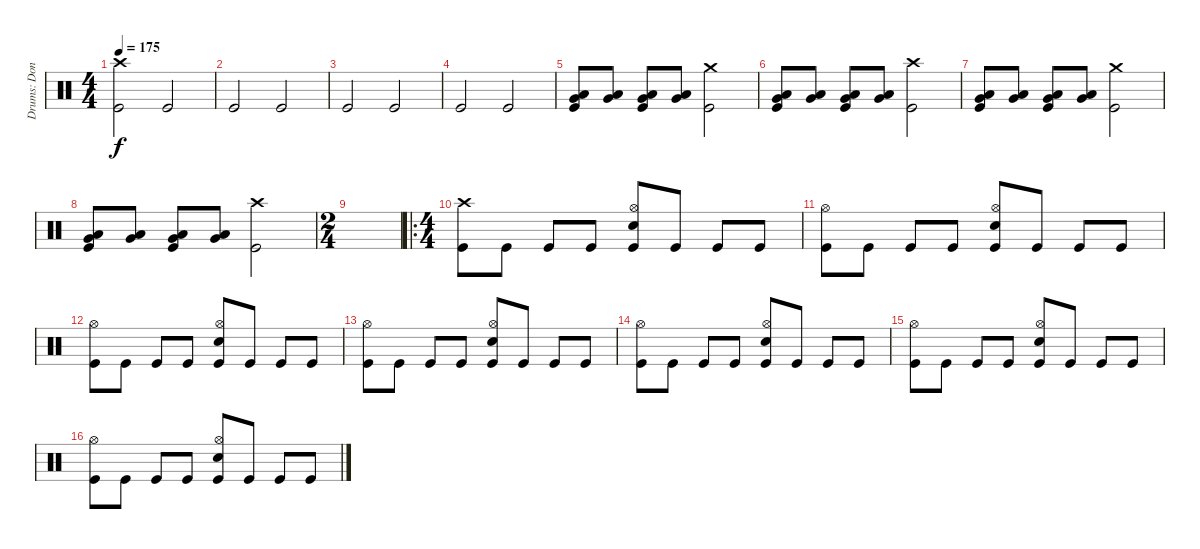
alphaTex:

\track ("Drums: Donald Tardy" "Drums: Don") {instrument percussion}
\staff {score}
\articulation defaults
\ts (4 4)
\tempo 175
\clef neutral
\ks c
("Crash high (hit)" "Kick (hit)").2{dy f} "Kick (hit)".2 |
"Kick (hit)".2 "Kick (hit)".2 |
"Kick (hit)".2 "Kick (hit)".2 |
"Kick (hit)".2 "Kick (hit)".2 |
("Very Low Tom (hit)" "Low Floor Tom (hit)" "Kick (hit)").8 ("Very Low Tom (hit)" "Low Floor Tom (hit)").8 ("Very Low Tom (hit)" "Low Floor Tom (hit)" "Kick (hit)").8 ("Very Low Tom (hit)" "Low Floor Tom (hit)").8 ("Crash medium (hit)" "Kick (hit)").2 |
("Very Low Tom (hit)" "Low Floor Tom (hit)" "Kick (hit)").8 ("Very Low Tom (hit)" "Low Floor Tom (hit)").8 ("Very Low Tom (hit)" "Low Floor Tom (hit)" "Kick (hit)").8 ("Very Low Tom (hit)" "Low Floor Tom (hit)").8 ("Crash high (hit)" "Kick (hit)").2 |
("Very Low Tom (hit)" "Low Floor Tom (hit)" "Kick (hit)").8 ("Very Low Tom (hit)" "Low Floor Tom (hit)").8 ("Very Low Tom (hit)" "Low Floor Tom (hit)" "Kick (hit)").8 ("Very Low Tom (hit)" "Low Floor Tom (hit)").8 ("Crash medium (hit)" "Kick (hit)").2 |
("Very Low Tom (hit)" "Low Floor Tom (hit)" "Kick (hit)").8 ("Very Low Tom (hit)" "Low Floor Tom (hit)").8 ("Very Low Tom (hit)" "Low Floor Tom (hit)" "Kick (hit)").8 ("Very Low Tom (hit)" "Low Floor Tom (hit)").8 ("Crash high (hit)" "Kick (hit)").2 |
\ts (2 4)
|
\ro
\ts (4 4)
("Crash high (hit)" "Kick (hit)").8 "Kick (hit)".8 "Kick (hit)".8 "Kick (hit)".8 ("Hi-Hat (open)" "Snare (hit) 2" "Kick (hit)").8 "Kick (hit)".8 "Kick (hit)".8 "Kick (hit)".8 |
("Hi-Hat (open)" "Kick (hit)").8 "Kick (hit)".8 "Kick (hit)".8 "Kick (hit)".8 ("Hi-Hat (open)" "Snare (hit) 2" "Kick (hit)").8 "Kick (hit)".8 "Kick (hit)".8 "Kick (hit)".8 |
("Hi-Hat (open)" "Kick (hit)").8 "Kick (hit)".8 "Kick (hit)".8 "Kick (hit)".8 ("Hi-Hat (open)" "Snare (hit) 2" "Kick (hit)").8 "Kick (hit)".8 "Kick (hit)".8 "Kick (hit)".8 |
("Hi-Hat (open)" "Kick (hit)").8 "Kick (hit)".8 "Kick (hit)".8 "Kick (hit)".8 ("Hi-Hat (open)" "Snare (hit) 2" "Kick (hit)").8 "Kick (hit)".8 "Kick (hit)".8 "Kick (hit)".8 |
("Hi-Hat (open)" "Kick (hit)").8 "Kick (hit)".8 "Kick (hit)".8 "Kick (hit)".8 ("Hi-Hat (open)" "Snare (hit) 2" "Kick (hit)").8 "Kick (hit)".8 "Kick (hit)".8 "Kick (hit)".8 |
("Hi-Hat (open)" "Kick (hit)").8 "Kick (hit)".8 "Kick (hit)".8 "Kick (hit)".8 ("Hi-Hat (open)" "Snare (hit) 2" "Kick (hit)").8 "Kick (hit)".8 "Kick (hit)".8 "Kick (hit)".8 |
("Hi-Hat (open)" "Kick (hit)").8 "Kick (hit)".8 "Kick (hit)".8 "Kick (hit)".8 ("Hi-Hat (open)" "Snare (hit) 2" "Kick (hit)").8 "Kick (hit)".8 "Kick (hit)".8 "Kick (hit)".8
